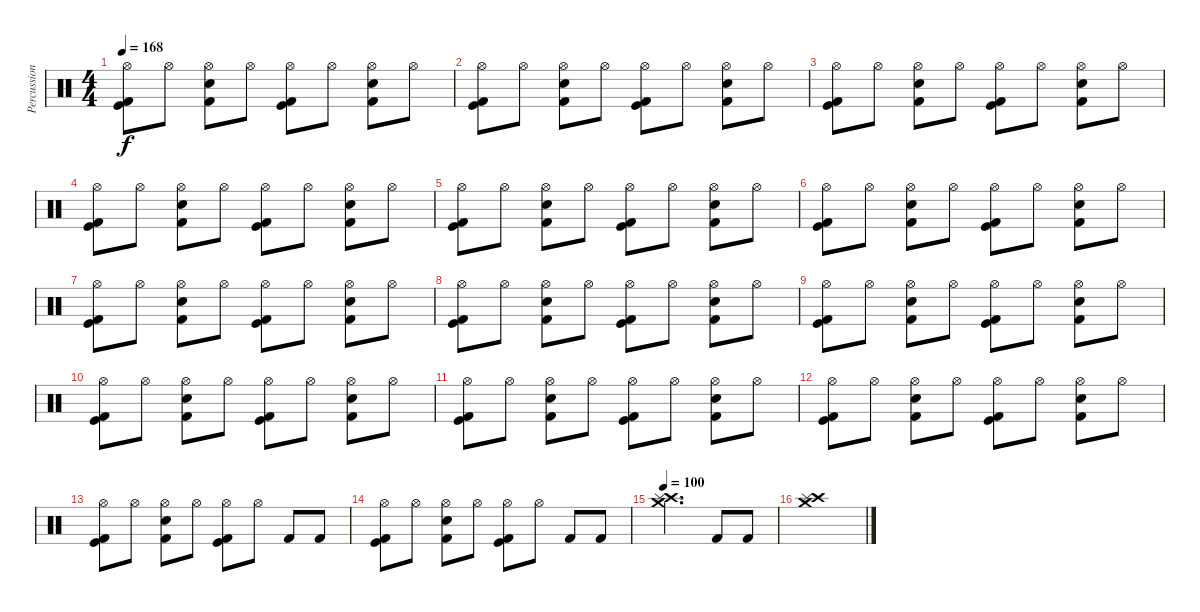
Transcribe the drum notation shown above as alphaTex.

\track ("Percussion" "Percussion") {instrument percussion}
\staff {score}
\articulation defaults
\ts (4 4)
\tempo 168
\clef neutral
\ks c
("Hi-Hat (open)" "Kick (hit)" "Kick (hit) 2").8{dy f} "Hi-Hat (open)".8 ("Hi-Hat (open)" "Electric Snare (hit)" "Kick (hit) 2").8 "Hi-Hat (open)".8 ("Hi-Hat (open)" "Kick (hit)" "Kick (hit) 2").8 "Hi-Hat (open)".8 ("Hi-Hat (open)" "Electric Snare (hit)" "Kick (hit) 2").8 "Hi-Hat (open)".8 |
("Hi-Hat (open)" "Kick (hit)" "Kick (hit) 2").8 "Hi-Hat (open)".8 ("Hi-Hat (open)" "Electric Snare (hit)" "Kick (hit) 2").8 "Hi-Hat (open)".8 ("Hi-Hat (open)" "Kick (hit)" "Kick (hit) 2").8 "Hi-Hat (open)".8 ("Hi-Hat (open)" "Electric Snare (hit)" "Kick (hit) 2").8 "Hi-Hat (open)".8 |
("Hi-Hat (open)" "Kick (hit)" "Kick (hit) 2").8 "Hi-Hat (open)".8 ("Hi-Hat (open)" "Electric Snare (hit)" "Kick (hit) 2").8 "Hi-Hat (open)".8 ("Hi-Hat (open)" "Kick (hit)" "Kick (hit) 2").8 "Hi-Hat (open)".8 ("Hi-Hat (open)" "Electric Snare (hit)" "Kick (hit) 2").8 "Hi-Hat (open)".8 |
("Hi-Hat (open)" "Kick (hit)" "Kick (hit) 2").8 "Hi-Hat (open)".8 ("Hi-Hat (open)" "Electric Snare (hit)" "Kick (hit) 2").8 "Hi-Hat (open)".8 ("Hi-Hat (open)" "Kick (hit)" "Kick (hit) 2").8 "Hi-Hat (open)".8 ("Hi-Hat (open)" "Electric Snare (hit)" "Kick (hit) 2").8 "Hi-Hat (open)".8 |
("Hi-Hat (open)" "Kick (hit)" "Kick (hit) 2").8 "Hi-Hat (open)".8 ("Hi-Hat (open)" "Electric Snare (hit)" "Kick (hit) 2").8 "Hi-Hat (open)".8 ("Hi-Hat (open)" "Kick (hit)" "Kick (hit) 2").8 "Hi-Hat (open)".8 ("Hi-Hat (open)" "Electric Snare (hit)" "Kick (hit) 2").8 "Hi-Hat (open)".8 |
("Hi-Hat (open)" "Kick (hit)" "Kick (hit) 2").8 "Hi-Hat (open)".8 ("Hi-Hat (open)" "Electric Snare (hit)" "Kick (hit) 2").8 "Hi-Hat (open)".8 ("Hi-Hat (open)" "Kick (hit)" "Kick (hit) 2").8 "Hi-Hat (open)".8 ("Hi-Hat (open)" "Electric Snare (hit)" "Kick (hit) 2").8 "Hi-Hat (open)".8 |
("Hi-Hat (open)" "Kick (hit)" "Kick (hit) 2").8 "Hi-Hat (open)".8 ("Hi-Hat (open)" "Electric Snare (hit)" "Kick (hit) 2").8 "Hi-Hat (open)".8 ("Hi-Hat (open)" "Kick (hit)" "Kick (hit) 2").8 "Hi-Hat (open)".8 ("Hi-Hat (open)" "Electric Snare (hit)" "Kick (hit) 2").8 "Hi-Hat (open)".8 |
("Hi-Hat (open)" "Kick (hit)" "Kick (hit) 2").8 "Hi-Hat (open)".8 ("Hi-Hat (open)" "Electric Snare (hit)" "Kick (hit) 2").8 "Hi-Hat (open)".8 ("Hi-Hat (open)" "Kick (hit)" "Kick (hit) 2").8 "Hi-Hat (open)".8 ("Hi-Hat (open)" "Electric Snare (hit)" "Kick (hit) 2").8 "Hi-Hat (open)".8 |
("Hi-Hat (open)" "Kick (hit)" "Kick (hit) 2").8 "Hi-Hat (open)".8 ("Hi-Hat (open)" "Electric Snare (hit)" "Kick (hit) 2").8 "Hi-Hat (open)".8 ("Hi-Hat (open)" "Kick (hit)" "Kick (hit) 2").8 "Hi-Hat (open)".8 ("Hi-Hat (open)" "Electric Snare (hit)" "Kick (hit) 2").8 "Hi-Hat (open)".8 |
("Hi-Hat (open)" "Kick (hit)" "Kick (hit) 2").8 "Hi-Hat (open)".8 ("Hi-Hat (open)" "Electric Snare (hit)" "Kick (hit) 2").8 "Hi-Hat (open)".8 ("Hi-Hat (open)" "Kick (hit)" "Kick (hit) 2").8 "Hi-Hat (open)".8 ("Hi-Hat (open)" "Electric Snare (hit)" "Kick (hit) 2").8 "Hi-Hat (open)".8 |
("Hi-Hat (open)" "Kick (hit)" "Kick (hit) 2").8 "Hi-Hat (open)".8 ("Hi-Hat (open)" "Electric Snare (hit)" "Kick (hit) 2").8 "Hi-Hat (open)".8 ("Hi-Hat (open)" "Kick (hit)" "Kick (hit) 2").8 "Hi-Hat (open)".8 ("Hi-Hat (open)" "Electric Snare (hit)" "Kick (hit) 2").8 "Hi-Hat (open)".8 |
("Hi-Hat (open)" "Kick (hit)" "Kick (hit) 2").8 "Hi-Hat (open)".8 ("Hi-Hat (open)" "Electric Snare (hit)" "Kick (hit) 2").8 "Hi-Hat (open)".8 ("Hi-Hat (open)" "Kick (hit)" "Kick (hit) 2").8 "Hi-Hat (open)".8 ("Hi-Hat (open)" "Electric Snare (hit)" "Kick (hit) 2").8 "Hi-Hat (open)".8 |
("Hi-Hat (open)" "Kick (hit)" "Kick (hit) 2").8 "Hi-Hat (open)".8 ("Hi-Hat (open)" "Electric Snare (hit)" "Kick (hit) 2").8 "Hi-Hat (open)".8 ("Hi-Hat (open)" "Kick (hit)" "Kick (hit) 2").8 "Hi-Hat (open)".8 "Kick (hit) 2".8 "Kick (hit) 2".8 |
("Hi-Hat (open)" "Kick (hit)" "Kick (hit) 2").8 "Hi-Hat (open)".8 ("Hi-Hat (open)" "Electric Snare (hit)" "Kick (hit) 2").8 "Hi-Hat (open)".8 ("Hi-Hat (open)" "Kick (hit)" "Kick (hit) 2").8 "Hi-Hat (open)".8 "Kick (hit) 2".8 "Kick (hit) 2".8 |
\tempo 100
("Crash high (hit)" "Crash medium (hit)" "Splash (hit)").2{d} "Kick (hit) 2".8 "Kick (hit) 2".8 |
("Crash high (hit)" "Crash medium (hit)" "Splash (hit)").1
